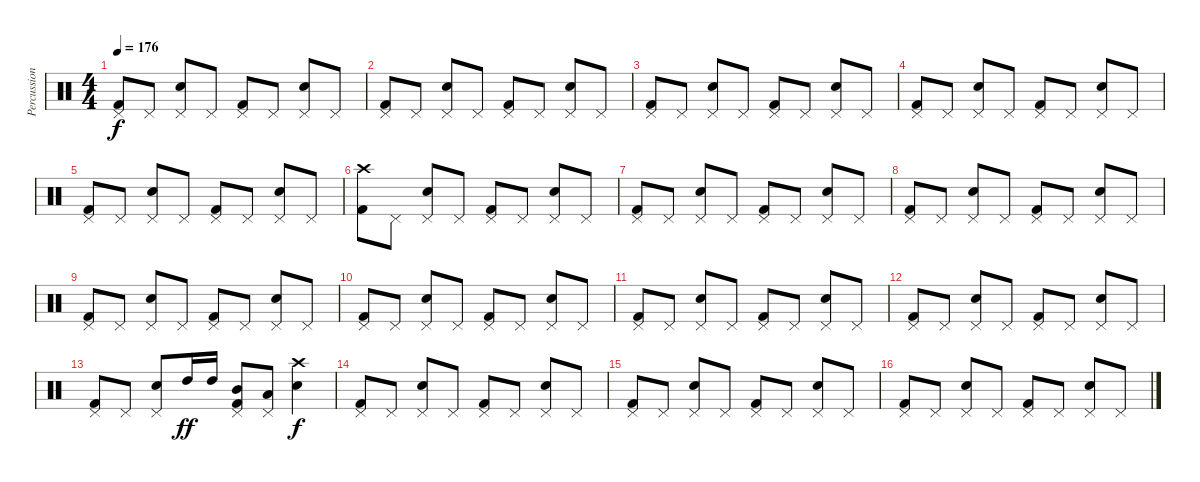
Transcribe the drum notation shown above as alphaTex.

\track ("Percussions" "Percussion") {instrument percussion}
\staff {score}
\articulation defaults
\ts (4 4)
\tempo 176
\clef neutral
\ks c
("Pedal Hi-Hat (hit)" "Kick (hit) 2").8{dy f} "Pedal Hi-Hat (hit)".8 ("Pedal Hi-Hat (hit)" "Electric Snare (hit)").8 "Pedal Hi-Hat (hit)".8 ("Pedal Hi-Hat (hit)" "Kick (hit) 2").8 "Pedal Hi-Hat (hit)".8 ("Pedal Hi-Hat (hit)" "Electric Snare (hit)").8 "Pedal Hi-Hat (hit)".8 |
("Pedal Hi-Hat (hit)" "Kick (hit) 2").8 "Pedal Hi-Hat (hit)".8 ("Pedal Hi-Hat (hit)" "Electric Snare (hit)").8 "Pedal Hi-Hat (hit)".8 ("Pedal Hi-Hat (hit)" "Kick (hit) 2").8 "Pedal Hi-Hat (hit)".8 ("Pedal Hi-Hat (hit)" "Electric Snare (hit)").8 "Pedal Hi-Hat (hit)".8 |
("Pedal Hi-Hat (hit)" "Kick (hit) 2").8 "Pedal Hi-Hat (hit)".8 ("Pedal Hi-Hat (hit)" "Electric Snare (hit)").8 "Pedal Hi-Hat (hit)".8 ("Pedal Hi-Hat (hit)" "Kick (hit) 2").8 "Pedal Hi-Hat (hit)".8 ("Pedal Hi-Hat (hit)" "Electric Snare (hit)").8 "Pedal Hi-Hat (hit)".8 |
("Pedal Hi-Hat (hit)" "Kick (hit) 2").8 "Pedal Hi-Hat (hit)".8 ("Pedal Hi-Hat (hit)" "Electric Snare (hit)").8 "Pedal Hi-Hat (hit)".8 ("Pedal Hi-Hat (hit)" "Kick (hit) 2").8 "Pedal Hi-Hat (hit)".8 ("Pedal Hi-Hat (hit)" "Electric Snare (hit)").8 "Pedal Hi-Hat (hit)".8 |
("Pedal Hi-Hat (hit)" "Kick (hit) 2").8 "Pedal Hi-Hat (hit)".8 ("Pedal Hi-Hat (hit)" "Electric Snare (hit)").8 "Pedal Hi-Hat (hit)".8 ("Pedal Hi-Hat (hit)" "Kick (hit) 2").8 "Pedal Hi-Hat (hit)".8 ("Pedal Hi-Hat (hit)" "Electric Snare (hit)").8 "Pedal Hi-Hat (hit)".8 |
("Crash high (hit)" "Kick (hit) 2").8 "Pedal Hi-Hat (hit)".8 ("Pedal Hi-Hat (hit)" "Electric Snare (hit)").8 "Pedal Hi-Hat (hit)".8 ("Pedal Hi-Hat (hit)" "Kick (hit) 2").8 "Pedal Hi-Hat (hit)".8 ("Pedal Hi-Hat (hit)" "Electric Snare (hit)").8 "Pedal Hi-Hat (hit)".8 |
("Pedal Hi-Hat (hit)" "Kick (hit) 2").8 "Pedal Hi-Hat (hit)".8 ("Pedal Hi-Hat (hit)" "Electric Snare (hit)").8 "Pedal Hi-Hat (hit)".8 ("Pedal Hi-Hat (hit)" "Kick (hit) 2").8 "Pedal Hi-Hat (hit)".8 ("Pedal Hi-Hat (hit)" "Electric Snare (hit)").8 "Pedal Hi-Hat (hit)".8 |
("Pedal Hi-Hat (hit)" "Kick (hit) 2").8 "Pedal Hi-Hat (hit)".8 ("Pedal Hi-Hat (hit)" "Electric Snare (hit)").8 "Pedal Hi-Hat (hit)".8 ("Pedal Hi-Hat (hit)" "Kick (hit) 2").8 "Pedal Hi-Hat (hit)".8 ("Pedal Hi-Hat (hit)" "Electric Snare (hit)").8 "Pedal Hi-Hat (hit)".8 |
("Pedal Hi-Hat (hit)" "Kick (hit) 2").8 "Pedal Hi-Hat (hit)".8 ("Pedal Hi-Hat (hit)" "Electric Snare (hit)").8 "Pedal Hi-Hat (hit)".8 ("Pedal Hi-Hat (hit)" "Kick (hit) 2").8 "Pedal Hi-Hat (hit)".8 ("Pedal Hi-Hat (hit)" "Electric Snare (hit)").8 "Pedal Hi-Hat (hit)".8 |
("Pedal Hi-Hat (hit)" "Kick (hit) 2").8 "Pedal Hi-Hat (hit)".8 ("Pedal Hi-Hat (hit)" "Electric Snare (hit)").8 "Pedal Hi-Hat (hit)".8 ("Pedal Hi-Hat (hit)" "Kick (hit) 2").8 "Pedal Hi-Hat (hit)".8 ("Pedal Hi-Hat (hit)" "Electric Snare (hit)").8 "Pedal Hi-Hat (hit)".8 |
("Pedal Hi-Hat (hit)" "Kick (hit) 2").8 "Pedal Hi-Hat (hit)".8 ("Pedal Hi-Hat (hit)" "Electric Snare (hit)").8 "Pedal Hi-Hat (hit)".8 ("Pedal Hi-Hat (hit)" "Kick (hit) 2").8 "Pedal Hi-Hat (hit)".8 ("Pedal Hi-Hat (hit)" "Electric Snare (hit)").8 "Pedal Hi-Hat (hit)".8 |
("Pedal Hi-Hat (hit)" "Kick (hit) 2").8 "Pedal Hi-Hat (hit)".8 ("Pedal Hi-Hat (hit)" "Electric Snare (hit)").8 "Pedal Hi-Hat (hit)".8 ("Pedal Hi-Hat (hit)" "Kick (hit) 2").8 "Pedal Hi-Hat (hit)".8 ("Pedal Hi-Hat (hit)" "Electric Snare (hit)").8 "Pedal Hi-Hat (hit)".8 |
("Pedal Hi-Hat (hit)" "Kick (hit) 2").8 "Pedal Hi-Hat (hit)".8 ("Pedal Hi-Hat (hit)" "Electric Snare (hit)").8 "High Tom (hit)".16{dy ff} "High Tom (hit)".16 ("Pedal Hi-Hat (hit)" "Mid Tom (hit)" "Kick (hit) 2").8 ("Pedal Hi-Hat (hit)" "Low Tom (hit)").8 ("Crash high (hit)" "Electric Snare (hit)").4{dy f} |
("Pedal Hi-Hat (hit)" "Kick (hit) 2").8 "Pedal Hi-Hat (hit)".8 ("Pedal Hi-Hat (hit)" "Electric Snare (hit)").8 "Pedal Hi-Hat (hit)".8 ("Pedal Hi-Hat (hit)" "Kick (hit) 2").8 "Pedal Hi-Hat (hit)".8 ("Pedal Hi-Hat (hit)" "Electric Snare (hit)").8 "Pedal Hi-Hat (hit)".8 |
("Pedal Hi-Hat (hit)" "Kick (hit) 2").8 "Pedal Hi-Hat (hit)".8 ("Pedal Hi-Hat (hit)" "Electric Snare (hit)").8 "Pedal Hi-Hat (hit)".8 ("Pedal Hi-Hat (hit)" "Kick (hit) 2").8 "Pedal Hi-Hat (hit)".8 ("Pedal Hi-Hat (hit)" "Electric Snare (hit)").8 "Pedal Hi-Hat (hit)".8 |
("Pedal Hi-Hat (hit)" "Kick (hit) 2").8 "Pedal Hi-Hat (hit)".8 ("Pedal Hi-Hat (hit)" "Electric Snare (hit)").8 "Pedal Hi-Hat (hit)".8 ("Pedal Hi-Hat (hit)" "Kick (hit) 2").8 "Pedal Hi-Hat (hit)".8 ("Pedal Hi-Hat (hit)" "Electric Snare (hit)").8 "Pedal Hi-Hat (hit)".8
